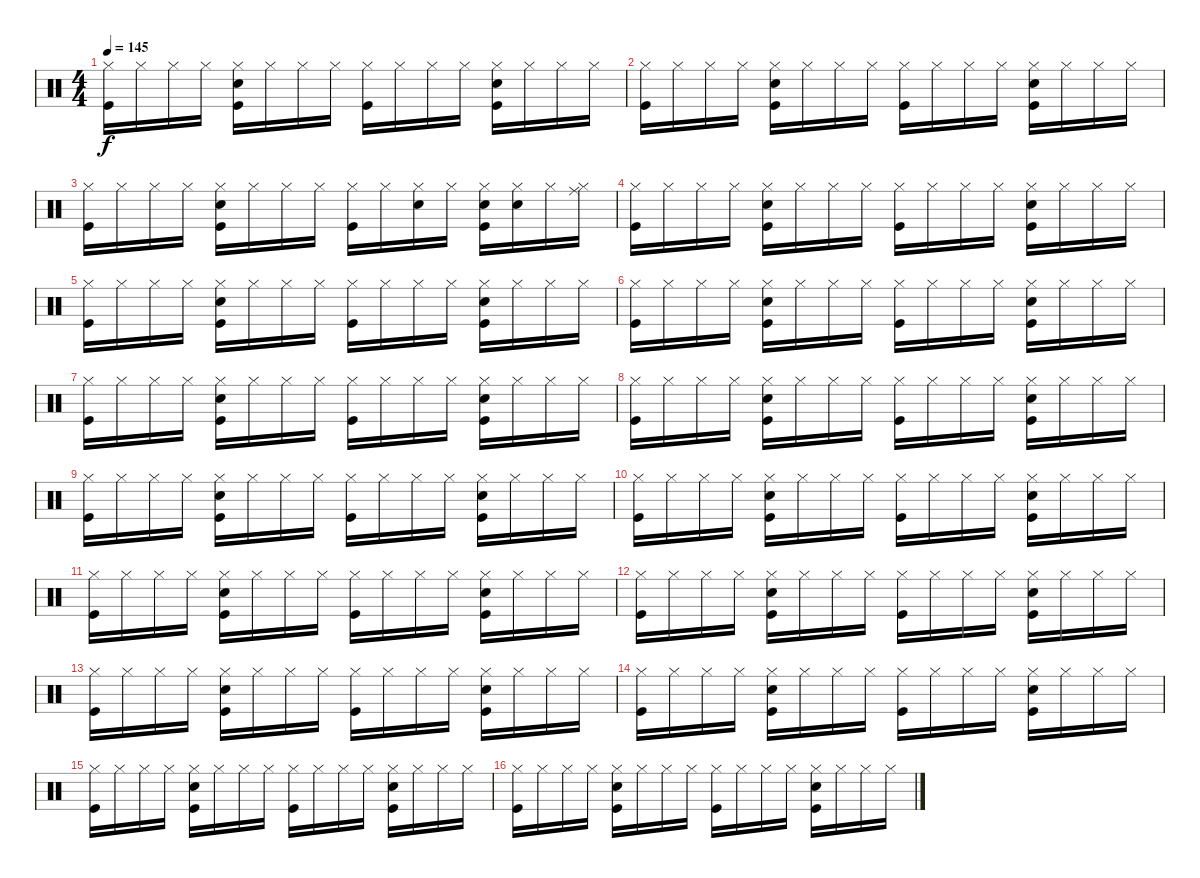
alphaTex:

\track "" {instrument percussion}
\staff {score}
\articulation defaults
\ts (4 4)
\tempo 145
\clef neutral
\ks c
("Hi-Hat (closed)" "Kick (hit)").16{dy f} "Hi-Hat (closed)".16 "Hi-Hat (closed)".16 "Hi-Hat (closed)".16 ("Snare (hit) 2" "Hi-Hat (closed)" "Kick (hit)").16 "Hi-Hat (closed)".16 "Hi-Hat (closed)".16 "Hi-Hat (closed)".16 ("Hi-Hat (closed)" "Kick (hit)").16 "Hi-Hat (closed)".16 "Hi-Hat (closed)".16 "Hi-Hat (closed)".16 ("Snare (hit) 2" "Hi-Hat (closed)" "Kick (hit)").16 "Hi-Hat (closed)".16 "Hi-Hat (closed)".16 "Hi-Hat (closed)".16 |
("Hi-Hat (closed)" "Kick (hit)").16 "Hi-Hat (closed)".16 "Hi-Hat (closed)".16 "Hi-Hat (closed)".16 ("Snare (hit) 2" "Hi-Hat (closed)" "Kick (hit)").16 "Hi-Hat (closed)".16 "Hi-Hat (closed)".16 "Hi-Hat (closed)".16 ("Hi-Hat (closed)" "Kick (hit)").16 "Hi-Hat (closed)".16 "Hi-Hat (closed)".16 "Hi-Hat (closed)".16 ("Snare (hit) 2" "Hi-Hat (closed)" "Kick (hit)").16 "Hi-Hat (closed)".16 "Hi-Hat (closed)".16 "Hi-Hat (closed)".16 |
("Hi-Hat (closed)" "Kick (hit)").16 "Hi-Hat (closed)".16 "Hi-Hat (closed)".16 "Hi-Hat (closed)".16 ("Snare (hit) 2" "Hi-Hat (closed)" "Kick (hit)").16 "Hi-Hat (closed)".16 "Hi-Hat (closed)".16 "Hi-Hat (closed)".16 ("Hi-Hat (closed)" "Kick (hit)").16 "Hi-Hat (closed)".16 ("Snare (hit) 2" "Hi-Hat (closed)").16 "Hi-Hat (closed)".16 ("Snare (hit) 2" "Hi-Hat (closed)" "Kick (hit)").16 ("Snare (hit) 2" "Hi-Hat (closed)").16 "Hi-Hat (closed)".16 ("Ride (middle)" "Hi-Hat (closed)").16 |
("Hi-Hat (closed)" "Kick (hit)").16 "Hi-Hat (closed)".16 "Hi-Hat (closed)".16 "Hi-Hat (closed)".16 ("Snare (hit) 2" "Hi-Hat (closed)" "Kick (hit)").16 "Hi-Hat (closed)".16 "Hi-Hat (closed)".16 "Hi-Hat (closed)".16 ("Hi-Hat (closed)" "Kick (hit)").16 "Hi-Hat (closed)".16 "Hi-Hat (closed)".16 "Hi-Hat (closed)".16 ("Snare (hit) 2" "Hi-Hat (closed)" "Kick (hit)").16 "Hi-Hat (closed)".16 "Hi-Hat (closed)".16 "Hi-Hat (closed)".16 |
("Hi-Hat (closed)" "Kick (hit)").16 "Hi-Hat (closed)".16 "Hi-Hat (closed)".16 "Hi-Hat (closed)".16 ("Snare (hit) 2" "Hi-Hat (closed)" "Kick (hit)").16 "Hi-Hat (closed)".16 "Hi-Hat (closed)".16 "Hi-Hat (closed)".16 ("Hi-Hat (closed)" "Kick (hit)").16 "Hi-Hat (closed)".16 "Hi-Hat (closed)".16 "Hi-Hat (closed)".16 ("Snare (hit) 2" "Hi-Hat (closed)" "Kick (hit)").16 "Hi-Hat (closed)".16 "Hi-Hat (closed)".16 "Hi-Hat (closed)".16 |
("Hi-Hat (closed)" "Kick (hit)").16 "Hi-Hat (closed)".16 "Hi-Hat (closed)".16 "Hi-Hat (closed)".16 ("Snare (hit) 2" "Hi-Hat (closed)" "Kick (hit)").16 "Hi-Hat (closed)".16 "Hi-Hat (closed)".16 "Hi-Hat (closed)".16 ("Hi-Hat (closed)" "Kick (hit)").16 "Hi-Hat (closed)".16 "Hi-Hat (closed)".16 "Hi-Hat (closed)".16 ("Snare (hit) 2" "Hi-Hat (closed)" "Kick (hit)").16 "Hi-Hat (closed)".16 "Hi-Hat (closed)".16 "Hi-Hat (closed)".16 |
("Hi-Hat (closed)" "Kick (hit)").16 "Hi-Hat (closed)".16 "Hi-Hat (closed)".16 "Hi-Hat (closed)".16 ("Snare (hit) 2" "Hi-Hat (closed)" "Kick (hit)").16 "Hi-Hat (closed)".16 "Hi-Hat (closed)".16 "Hi-Hat (closed)".16 ("Hi-Hat (closed)" "Kick (hit)").16 "Hi-Hat (closed)".16 "Hi-Hat (closed)".16 "Hi-Hat (closed)".16 ("Snare (hit) 2" "Hi-Hat (closed)" "Kick (hit)").16 "Hi-Hat (closed)".16 "Hi-Hat (closed)".16 "Hi-Hat (closed)".16 |
("Hi-Hat (closed)" "Kick (hit)").16 "Hi-Hat (closed)".16 "Hi-Hat (closed)".16 "Hi-Hat (closed)".16 ("Snare (hit) 2" "Hi-Hat (closed)" "Kick (hit)").16 "Hi-Hat (closed)".16 "Hi-Hat (closed)".16 "Hi-Hat (closed)".16 ("Hi-Hat (closed)" "Kick (hit)").16 "Hi-Hat (closed)".16 "Hi-Hat (closed)".16 "Hi-Hat (closed)".16 ("Snare (hit) 2" "Hi-Hat (closed)" "Kick (hit)").16 "Hi-Hat (closed)".16 "Hi-Hat (closed)".16 "Hi-Hat (closed)".16 |
("Hi-Hat (closed)" "Kick (hit)").16 "Hi-Hat (closed)".16 "Hi-Hat (closed)".16 "Hi-Hat (closed)".16 ("Snare (hit) 2" "Hi-Hat (closed)" "Kick (hit)").16 "Hi-Hat (closed)".16 "Hi-Hat (closed)".16 "Hi-Hat (closed)".16 ("Hi-Hat (closed)" "Kick (hit)").16 "Hi-Hat (closed)".16 "Hi-Hat (closed)".16 "Hi-Hat (closed)".16 ("Snare (hit) 2" "Hi-Hat (closed)" "Kick (hit)").16 "Hi-Hat (closed)".16 "Hi-Hat (closed)".16 "Hi-Hat (closed)".16 |
("Hi-Hat (closed)" "Kick (hit)").16 "Hi-Hat (closed)".16 "Hi-Hat (closed)".16 "Hi-Hat (closed)".16 ("Snare (hit) 2" "Hi-Hat (closed)" "Kick (hit)").16 "Hi-Hat (closed)".16 "Hi-Hat (closed)".16 "Hi-Hat (closed)".16 ("Hi-Hat (closed)" "Kick (hit)").16 "Hi-Hat (closed)".16 "Hi-Hat (closed)".16 "Hi-Hat (closed)".16 ("Snare (hit) 2" "Hi-Hat (closed)" "Kick (hit)").16 "Hi-Hat (closed)".16 "Hi-Hat (closed)".16 "Hi-Hat (closed)".16 |
("Hi-Hat (closed)" "Kick (hit)").16 "Hi-Hat (closed)".16 "Hi-Hat (closed)".16 "Hi-Hat (closed)".16 ("Snare (hit) 2" "Hi-Hat (closed)" "Kick (hit)").16 "Hi-Hat (closed)".16 "Hi-Hat (closed)".16 "Hi-Hat (closed)".16 ("Hi-Hat (closed)" "Kick (hit)").16 "Hi-Hat (closed)".16 "Hi-Hat (closed)".16 "Hi-Hat (closed)".16 ("Snare (hit) 2" "Hi-Hat (closed)" "Kick (hit)").16 "Hi-Hat (closed)".16 "Hi-Hat (closed)".16 "Hi-Hat (closed)".16 |
("Hi-Hat (closed)" "Kick (hit)").16 "Hi-Hat (closed)".16 "Hi-Hat (closed)".16 "Hi-Hat (closed)".16 ("Snare (hit) 2" "Hi-Hat (closed)" "Kick (hit)").16 "Hi-Hat (closed)".16 "Hi-Hat (closed)".16 "Hi-Hat (closed)".16 ("Hi-Hat (closed)" "Kick (hit)").16 "Hi-Hat (closed)".16 "Hi-Hat (closed)".16 "Hi-Hat (closed)".16 ("Snare (hit) 2" "Hi-Hat (closed)" "Kick (hit)").16 "Hi-Hat (closed)".16 "Hi-Hat (closed)".16 "Hi-Hat (closed)".16 |
("Hi-Hat (closed)" "Kick (hit)").16 "Hi-Hat (closed)".16 "Hi-Hat (closed)".16 "Hi-Hat (closed)".16 ("Snare (hit) 2" "Hi-Hat (closed)" "Kick (hit)").16 "Hi-Hat (closed)".16 "Hi-Hat (closed)".16 "Hi-Hat (closed)".16 ("Hi-Hat (closed)" "Kick (hit)").16 "Hi-Hat (closed)".16 "Hi-Hat (closed)".16 "Hi-Hat (closed)".16 ("Snare (hit) 2" "Hi-Hat (closed)" "Kick (hit)").16 "Hi-Hat (closed)".16 "Hi-Hat (closed)".16 "Hi-Hat (closed)".16 |
("Hi-Hat (closed)" "Kick (hit)").16 "Hi-Hat (closed)".16 "Hi-Hat (closed)".16 "Hi-Hat (closed)".16 ("Snare (hit) 2" "Hi-Hat (closed)" "Kick (hit)").16 "Hi-Hat (closed)".16 "Hi-Hat (closed)".16 "Hi-Hat (closed)".16 ("Hi-Hat (closed)" "Kick (hit)").16 "Hi-Hat (closed)".16 "Hi-Hat (closed)".16 "Hi-Hat (closed)".16 ("Snare (hit) 2" "Hi-Hat (closed)" "Kick (hit)").16 "Hi-Hat (closed)".16 "Hi-Hat (closed)".16 "Hi-Hat (closed)".16 |
("Hi-Hat (closed)" "Kick (hit)").16 "Hi-Hat (closed)".16 "Hi-Hat (closed)".16 "Hi-Hat (closed)".16 ("Snare (hit) 2" "Hi-Hat (closed)" "Kick (hit)").16 "Hi-Hat (closed)".16 "Hi-Hat (closed)".16 "Hi-Hat (closed)".16 ("Hi-Hat (closed)" "Kick (hit)").16 "Hi-Hat (closed)".16 "Hi-Hat (closed)".16 "Hi-Hat (closed)".16 ("Snare (hit) 2" "Hi-Hat (closed)" "Kick (hit)").16 "Hi-Hat (closed)".16 "Hi-Hat (closed)".16 "Hi-Hat (closed)".16 |
("Hi-Hat (closed)" "Kick (hit)").16 "Hi-Hat (closed)".16 "Hi-Hat (closed)".16 "Hi-Hat (closed)".16 ("Snare (hit) 2" "Hi-Hat (closed)" "Kick (hit)").16 "Hi-Hat (closed)".16 "Hi-Hat (closed)".16 "Hi-Hat (closed)".16 ("Hi-Hat (closed)" "Kick (hit)").16 "Hi-Hat (closed)".16 "Hi-Hat (closed)".16 "Hi-Hat (closed)".16 ("Snare (hit) 2" "Hi-Hat (closed)" "Kick (hit)").16 "Hi-Hat (closed)".16 "Hi-Hat (closed)".16 "Hi-Hat (closed)".16
